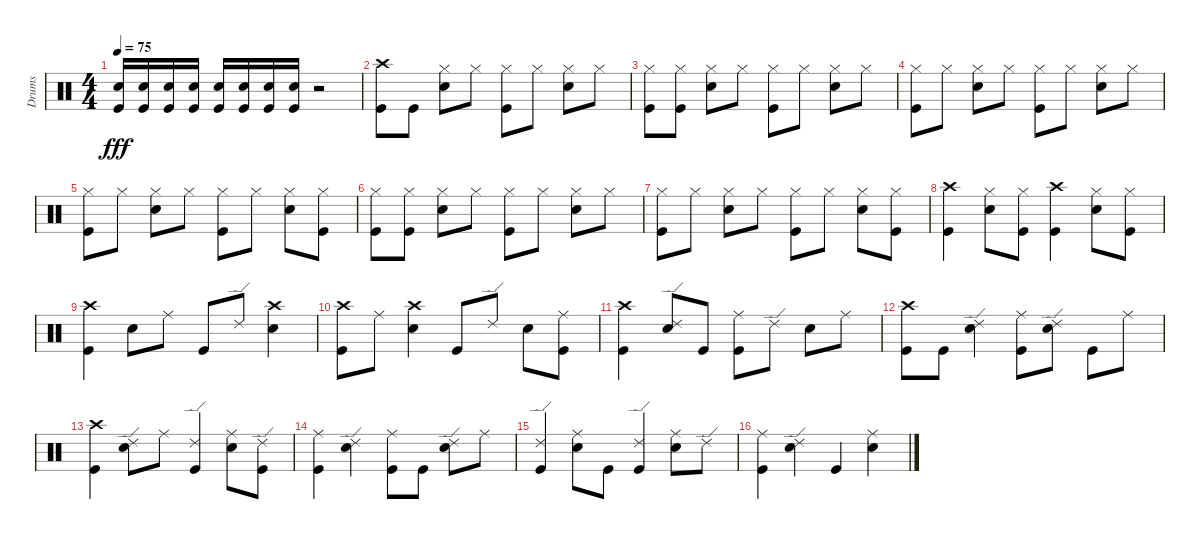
\track ("Drums" "Drums") {instrument percussion}
\staff {score}
\articulation defaults
\ts (4 4)
\tempo 75
\clef neutral
\ks c
("Snare (hit) 2" "Kick (hit)").16{dy fff} ("Snare (hit) 2" "Kick (hit)").16 ("Snare (hit) 2" "Kick (hit)").16 ("Snare (hit) 2" "Kick (hit)").16 ("Snare (hit) 2" "Kick (hit)").16 ("Snare (hit) 2" "Kick (hit)").16 ("Snare (hit) 2" "Kick (hit)").16 ("Snare (hit) 2" "Kick (hit)").16 r.2 |
("Crash high (hit)" "Kick (hit)").8 "Kick (hit)".8 ("Hi-Hat (closed)" "Snare (hit) 2").8 "Hi-Hat (closed)".8 ("Hi-Hat (closed)" "Kick (hit)").8 "Hi-Hat (closed)".8 ("Hi-Hat (closed)" "Snare (hit) 2").8 "Hi-Hat (closed)".8 |
("Hi-Hat (closed)" "Kick (hit)").8 ("Hi-Hat (closed)" "Kick (hit)").8 ("Hi-Hat (closed)" "Snare (hit) 2").8 "Hi-Hat (closed)".8 ("Hi-Hat (closed)" "Kick (hit)").8 "Hi-Hat (closed)".8 ("Hi-Hat (closed)" "Snare (hit) 2").8 "Hi-Hat (closed)".8 |
("Hi-Hat (closed)" "Kick (hit)").8 "Hi-Hat (closed)".8 ("Hi-Hat (closed)" "Snare (hit) 2").8 "Hi-Hat (closed)".8 ("Hi-Hat (closed)" "Kick (hit)").8 "Hi-Hat (closed)".8 ("Hi-Hat (closed)" "Snare (hit) 2").8 "Hi-Hat (closed)".8 |
("Hi-Hat (closed)" "Kick (hit)").8 "Hi-Hat (closed)".8 ("Hi-Hat (closed)" "Snare (hit) 2").8 "Hi-Hat (closed)".8 ("Hi-Hat (closed)" "Kick (hit)").8 "Hi-Hat (closed)".8 ("Hi-Hat (closed)" "Snare (hit) 2").8 ("Hi-Hat (closed)" "Kick (hit)").8 |
("Hi-Hat (closed)" "Kick (hit)").8 ("Hi-Hat (closed)" "Kick (hit)").8 ("Hi-Hat (closed)" "Snare (hit) 2").8 "Hi-Hat (closed)".8 ("Hi-Hat (closed)" "Kick (hit)").8 "Hi-Hat (closed)".8 ("Hi-Hat (closed)" "Snare (hit) 2").8 "Hi-Hat (closed)".8 |
("Hi-Hat (closed)" "Kick (hit)").8 "Hi-Hat (closed)".8 ("Hi-Hat (closed)" "Snare (hit) 2").8 "Hi-Hat (closed)".8 ("Hi-Hat (closed)" "Kick (hit)").8 "Hi-Hat (closed)".8 ("Hi-Hat (closed)" "Snare (hit) 2").8 ("Hi-Hat (closed)" "Kick (hit)").8 |
("Crash high (hit)" "Kick (hit)").4 ("Hi-Hat (closed)" "Snare (hit) 2").8 ("Hi-Hat (closed)" "Kick (hit)").8 ("Crash high (hit)" "Kick (hit)").4 ("Hi-Hat (closed)" "Snare (hit) 2").8 ("Hi-Hat (closed)" "Kick (hit)").8 |
("Crash high (hit)" "Kick (hit)").4 "Snare (hit) 2".8 "Ride (middle)".8 "Kick (hit)".8 "Ride (edge) 2".8 ("Crash high (hit)" "Snare (hit) 2").4 |
("Crash high (hit)" "Kick (hit)").8 "Ride (middle)".8 ("Crash high (hit)" "Snare (hit) 2").4 "Kick (hit)".8 "Ride (edge) 2".8 "Snare (hit) 2".8 ("Ride (middle)" "Kick (hit)").8 |
("Crash high (hit)" "Kick (hit)").4 ("Ride (edge) 2" "Snare (hit) 2").8 "Kick (hit)".8 ("Ride (middle)" "Kick (hit)").8 "Ride (edge) 2".8 "Snare (hit) 2".8 "Ride (middle)".8 |
("Crash high (hit)" "Kick (hit)").8 "Kick (hit)".8 ("Ride (edge) 2" "Snare (hit) 2").4 ("Ride (middle)" "Kick (hit)").8 ("Ride (edge) 2" "Snare (hit) 2").8 "Kick (hit)".8 "Ride (middle)".8 |
("Crash high (hit)" "Kick (hit)").4 ("Ride (edge) 2" "Snare (hit) 2").8 "Ride (middle)".8 ("Ride (edge) 2" "Kick (hit)").4 ("Ride (middle)" "Snare (hit) 2").8 ("Ride (edge) 2" "Kick (hit)").8 |
("Ride (middle)" "Kick (hit)").4 ("Ride (edge) 2" "Snare (hit) 2").4 ("Ride (middle)" "Kick (hit)").8 "Kick (hit)".8 ("Ride (edge) 2" "Snare (hit) 2").8 "Ride (middle)".8 |
("Ride (edge) 2" "Kick (hit)").4 ("Ride (middle)" "Snare (hit) 2").8 "Kick (hit)".8 ("Ride (edge) 2" "Kick (hit)").4 ("Ride (middle)" "Snare (hit) 2").8 "Ride (edge) 2".8 |
("Ride (middle)" "Kick (hit)").4 ("Ride (edge) 2" "Snare (hit) 2").4 "Kick (hit)".4 ("Ride (middle)" "Snare (hit) 2").4
